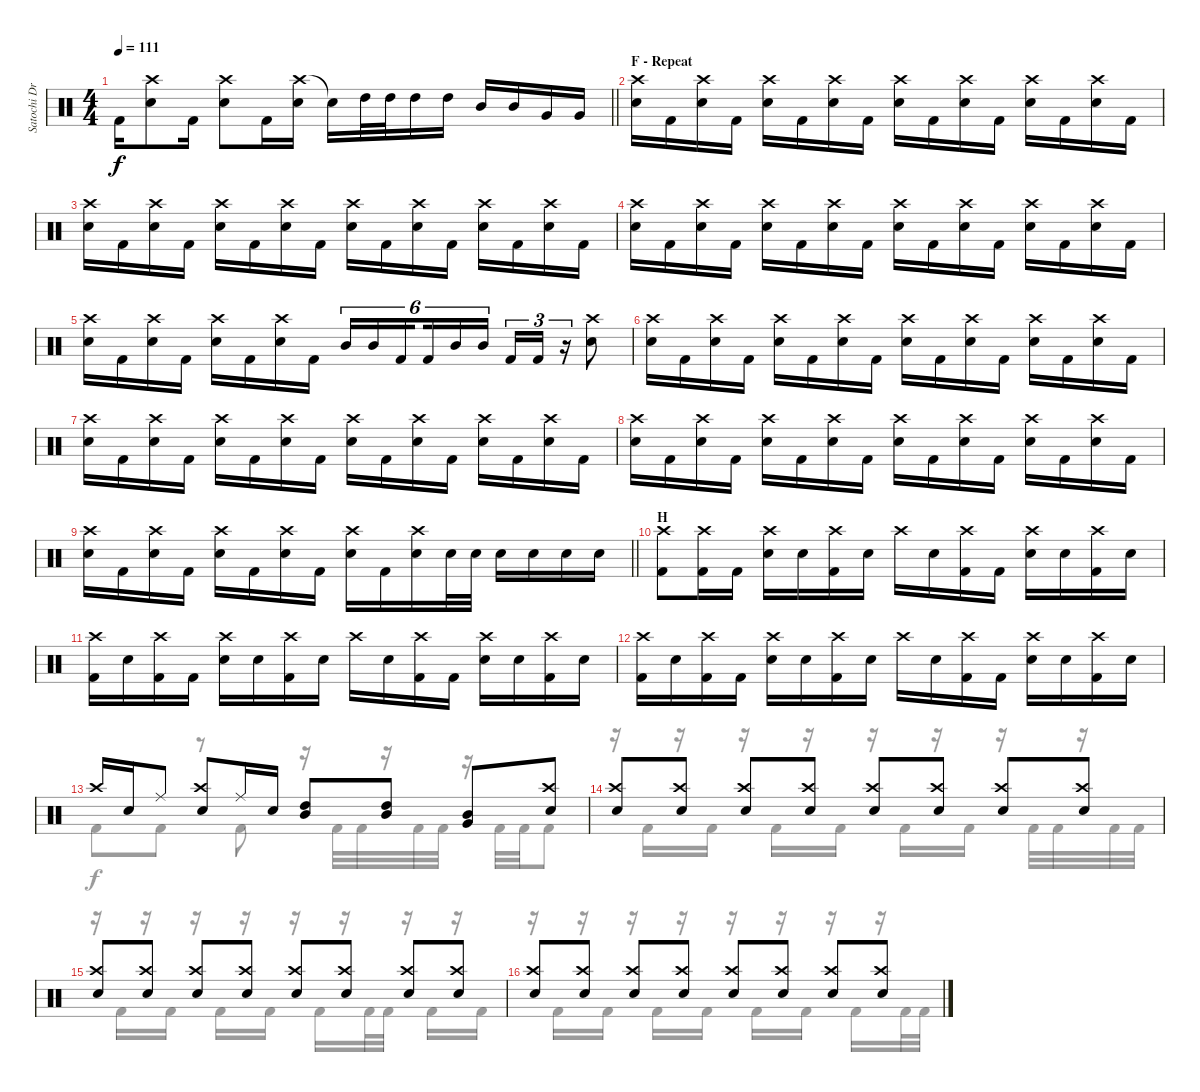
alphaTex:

\track ("Satochi Drums" "Satochi Dr") {instrument percussion}
\staff {score}
\articulation defaults
\voice
\ts (4 4)
\tempo 111
\clef neutral
\barLineRight lightlight
\ks c "Kick (hit) 2".16{dy f}
("Crash high (hit)" "Snare (hit) 2").8 "Kick (hit) 2".16 ("Crash high (hit)" "Snare (hit) 2").8 "Kick (hit) 2".16 ("Crash high (hit)" "Snare (hit) 2").16 "Snare (hit)"{t}.16 "High Tom (hit)".32 "High Tom (hit)".32 "High Tom (hit)".16 "High Tom (hit)".16 "Mid Tom (hit)".16 "Mid Tom (hit)".16 "Very Low Tom (hit)".16 "Very Low Tom (hit)".16 |
\section ("" "F - Repeat")
("Crash high (hit)" "Snare (hit) 2").16 "Kick (hit) 2".16 ("Crash high (hit)" "Snare (hit) 2").16 "Kick (hit) 2".16 ("Crash high (hit)" "Snare (hit) 2").16 "Kick (hit) 2".16 ("Crash high (hit)" "Snare (hit) 2").16 "Kick (hit) 2".16 ("Crash high (hit)" "Snare (hit) 2").16 "Kick (hit) 2".16 ("Crash high (hit)" "Snare (hit) 2").16 "Kick (hit) 2".16 ("Crash high (hit)" "Snare (hit) 2").16 "Kick (hit) 2".16 ("Crash high (hit)" "Snare (hit) 2").16 "Kick (hit) 2".16 |
("Crash high (hit)" "Snare (hit) 2").16 "Kick (hit) 2".16 ("Crash high (hit)" "Snare (hit) 2").16 "Kick (hit) 2".16 ("Crash high (hit)" "Snare (hit) 2").16 "Kick (hit) 2".16 ("Crash high (hit)" "Snare (hit) 2").16 "Kick (hit) 2".16 ("Crash high (hit)" "Snare (hit) 2").16 "Kick (hit) 2".16 ("Crash high (hit)" "Snare (hit) 2").16 "Kick (hit) 2".16 ("Crash high (hit)" "Snare (hit) 2").16 "Kick (hit) 2".16 ("Crash high (hit)" "Snare (hit) 2").16 "Kick (hit) 2".16 |
("Crash high (hit)" "Snare (hit) 2").16 "Kick (hit) 2".16 ("Crash high (hit)" "Snare (hit) 2").16 "Kick (hit) 2".16 ("Crash high (hit)" "Snare (hit) 2").16 "Kick (hit) 2".16 ("Crash high (hit)" "Snare (hit) 2").16 "Kick (hit) 2".16 ("Crash high (hit)" "Snare (hit) 2").16 "Kick (hit) 2".16 ("Crash high (hit)" "Snare (hit) 2").16 "Kick (hit) 2".16 ("Crash high (hit)" "Snare (hit) 2").16 "Kick (hit) 2".16 ("Crash high (hit)" "Snare (hit) 2").16 "Kick (hit) 2".16 |
("Crash high (hit)" "Snare (hit) 2").16 "Kick (hit) 2".16 ("Crash high (hit)" "Snare (hit) 2").16 "Kick (hit) 2".16 ("Crash high (hit)" "Snare (hit) 2").16 "Kick (hit) 2".16 ("Crash high (hit)" "Snare (hit) 2").16 "Kick (hit) 2".16 "Mid Tom (hit)".16{tu (6 4)} "Mid Tom (hit)".16{tu (6 4)} "Kick (hit) 2".16{tu (6 4) beam splitsecondary} "Kick (hit) 2".16{tu (6 4)} "Mid Tom (hit)".16{tu (6 4)} "Mid Tom (hit)".16{tu (6 4)} "Kick (hit) 2".16{tu (3 2)} "Kick (hit) 2".16{tu (3 2)} r.16{tu (3 2)} ("Crash high (hit)" "Snare (hit) 2").8 |
("Crash high (hit)" "Snare (hit) 2").16 "Kick (hit) 2".16 ("Crash high (hit)" "Snare (hit) 2").16 "Kick (hit) 2".16 ("Crash high (hit)" "Snare (hit) 2").16 "Kick (hit) 2".16 ("Crash high (hit)" "Snare (hit) 2").16 "Kick (hit) 2".16 ("Crash high (hit)" "Snare (hit) 2").16 "Kick (hit) 2".16 ("Crash high (hit)" "Snare (hit) 2").16 "Kick (hit) 2".16 ("Crash high (hit)" "Snare (hit) 2").16 "Kick (hit) 2".16 ("Crash high (hit)" "Snare (hit) 2").16 "Kick (hit) 2".16 |
("Crash high (hit)" "Snare (hit) 2").16 "Kick (hit) 2".16 ("Crash high (hit)" "Snare (hit) 2").16 "Kick (hit) 2".16 ("Crash high (hit)" "Snare (hit) 2").16 "Kick (hit) 2".16 ("Crash high (hit)" "Snare (hit) 2").16 "Kick (hit) 2".16 ("Crash high (hit)" "Snare (hit) 2").16 "Kick (hit) 2".16 ("Crash high (hit)" "Snare (hit) 2").16 "Kick (hit) 2".16 ("Crash high (hit)" "Snare (hit) 2").16 "Kick (hit) 2".16 ("Crash high (hit)" "Snare (hit) 2").16 "Kick (hit) 2".16 |
("Crash high (hit)" "Snare (hit) 2").16 "Kick (hit) 2".16 ("Crash high (hit)" "Snare (hit) 2").16 "Kick (hit) 2".16 ("Crash high (hit)" "Snare (hit) 2").16 "Kick (hit) 2".16 ("Crash high (hit)" "Snare (hit) 2").16 "Kick (hit) 2".16 ("Crash high (hit)" "Snare (hit) 2").16 "Kick (hit) 2".16 ("Crash high (hit)" "Snare (hit) 2").16 "Kick (hit) 2".16 ("Crash high (hit)" "Snare (hit) 2").16 "Kick (hit) 2".16 ("Crash high (hit)" "Snare (hit) 2").16 "Kick (hit) 2".16 |
\barLineRight lightlight
("Crash high (hit)" "Snare (hit) 2").16 "Kick (hit) 2".16 ("Crash high (hit)" "Snare (hit) 2").16 "Kick (hit) 2".16 ("Crash high (hit)" "Snare (hit) 2").16 "Kick (hit) 2".16 ("Crash high (hit)" "Snare (hit) 2").16 "Kick (hit) 2".16 ("Crash high (hit)" "Snare (hit) 2").16 "Kick (hit) 2".16 ("Crash high (hit)" "Snare (hit) 2").16 "Snare (hit) 2".32 "Snare (hit) 2".32 "Snare (hit) 2".16 "Snare (hit) 2".16 "Snare (hit) 2".16 "Snare (hit) 2".16 |
\section ("" "H")
("Crash high (hit)" "Kick (hit) 2").8 ("Crash high (hit)" "Kick (hit) 2").16 "Kick (hit) 2".16 ("Crash high (hit)" "Snare (hit) 2").16 "Snare (hit) 2".16 ("Crash high (hit)" "Kick (hit) 2").16 "Snare (hit) 2".16 "Crash high (hit)".16 "Snare (hit) 2".16 ("Crash high (hit)" "Kick (hit) 2").16 "Kick (hit) 2".16 ("Crash high (hit)" "Snare (hit) 2").16 "Snare (hit) 2".16 ("Crash high (hit)" "Kick (hit) 2").16 "Snare (hit) 2".16 |
("Crash high (hit)" "Kick (hit) 2").16 "Snare (hit) 2".16 ("Crash high (hit)" "Kick (hit) 2").16 "Kick (hit) 2".16 ("Crash high (hit)" "Snare (hit) 2").16 "Snare (hit) 2".16 ("Crash high (hit)" "Kick (hit) 2").16 "Snare (hit) 2".16 "Crash high (hit)".16 "Snare (hit) 2".16 ("Crash high (hit)" "Kick (hit) 2").16 "Kick (hit) 2".16 ("Crash high (hit)" "Snare (hit) 2").16 "Snare (hit) 2".16 ("Crash high (hit)" "Kick (hit) 2").16 "Snare (hit) 2".16 |
("Crash high (hit)" "Kick (hit) 2").16 "Snare (hit) 2".16 ("Crash high (hit)" "Kick (hit) 2").16 "Kick (hit) 2".16 ("Crash high (hit)" "Snare (hit) 2").16 "Snare (hit) 2".16 ("Crash high (hit)" "Kick (hit) 2").16 "Snare (hit) 2".16 "Crash high (hit)".16 "Snare (hit) 2".16 ("Crash high (hit)" "Kick (hit) 2").16 "Kick (hit) 2".16 ("Crash high (hit)" "Snare (hit) 2").16 "Snare (hit) 2".16 ("Crash high (hit)" "Kick (hit) 2").16 "Snare (hit) 2".16 |
"Crash high (hit)".16 "Snare (hit) 2".16 "Ride (middle)".8 ("Crash high (hit)" "Snare (hit) 2").8 "Ride (middle)".16 "Snare (hit) 2".16 ("High Tom (hit)" "Mid Tom (hit)").8 ("High Tom (hit)" "Mid Tom (hit)").8 ("Mid Tom (hit)" "Very Low Tom (hit)").8 ("Crash high (hit)" "Snare (hit) 2").8 |
("Crash high (hit)" "Snare (hit) 2").8 ("Crash high (hit)" "Snare (hit) 2").8 ("Crash high (hit)" "Snare (hit) 2").8 ("Crash high (hit)" "Snare (hit) 2").8 ("Crash high (hit)" "Snare (hit) 2").8 ("Crash high (hit)" "Snare (hit) 2").8 ("Crash high (hit)" "Snare (hit) 2").8 ("Crash high (hit)" "Snare (hit) 2").8 |
("Crash high (hit)" "Snare (hit) 2").8 ("Crash high (hit)" "Snare (hit) 2").8 ("Crash high (hit)" "Snare (hit) 2").8 ("Crash high (hit)" "Snare (hit) 2").8 ("Crash high (hit)" "Snare (hit) 2").8 ("Crash high (hit)" "Snare (hit) 2").8 ("Crash high (hit)" "Snare (hit) 2").8 ("Crash high (hit)" "Snare (hit) 2").8 |
("Crash high (hit)" "Snare (hit) 2").8 ("Crash high (hit)" "Snare (hit) 2").8 ("Crash high (hit)" "Snare (hit) 2").8 ("Crash high (hit)" "Snare (hit) 2").8 ("Crash high (hit)" "Snare (hit) 2").8 ("Crash high (hit)" "Snare (hit) 2").8 ("Crash high (hit)" "Snare (hit) 2").8 ("Crash high (hit)" "Snare (hit) 2").8
\voice
\clef neutral
\ottava regular
\simile none
\barLineRight lightlight
\ks c
|
|
|
|
|
|
|
|
\barLineRight lightlight
|
|
|
|
"Kick (hit) 2".8 "Kick (hit) 2".8 r.8 "Kick (hit) 2".8 r.16 "Kick (hit) 2".32 "Kick (hit) 2".32 r.16 "Kick (hit) 2".32 "Kick (hit) 2".32 r.16 "Kick (hit) 2".32 "Kick (hit) 2".32 "Kick (hit) 2".8 |
r.16 "Kick (hit) 2".16 r.16 "Kick (hit) 2".16 r.16 "Kick (hit) 2".16 r.16 "Kick (hit) 2".16 r.16 "Kick (hit) 2".16 r.16 "Kick (hit) 2".16 r.16 "Kick (hit) 2".32 "Kick (hit) 2".32 r.16 "Kick (hit) 2".32 "Kick (hit) 2".32 |
r.16 "Kick (hit) 2".16 r.16 "Kick (hit) 2".16 r.16 "Kick (hit) 2".16 r.16 "Kick (hit) 2".16 r.16 "Kick (hit) 2".16 r.16 "Kick (hit) 2".32 "Kick (hit) 2".32 r.16 "Kick (hit) 2".16 r.16 "Kick (hit) 2".16 |
r.16 "Kick (hit) 2".16 r.16 "Kick (hit) 2".16 r.16 "Kick (hit) 2".16 r.16 "Kick (hit) 2".16 r.16 "Kick (hit) 2".16 r.16 "Kick (hit) 2".16 r.16 "Kick (hit) 2".16 r.16 "Kick (hit) 2".32 "Kick (hit) 2".32
